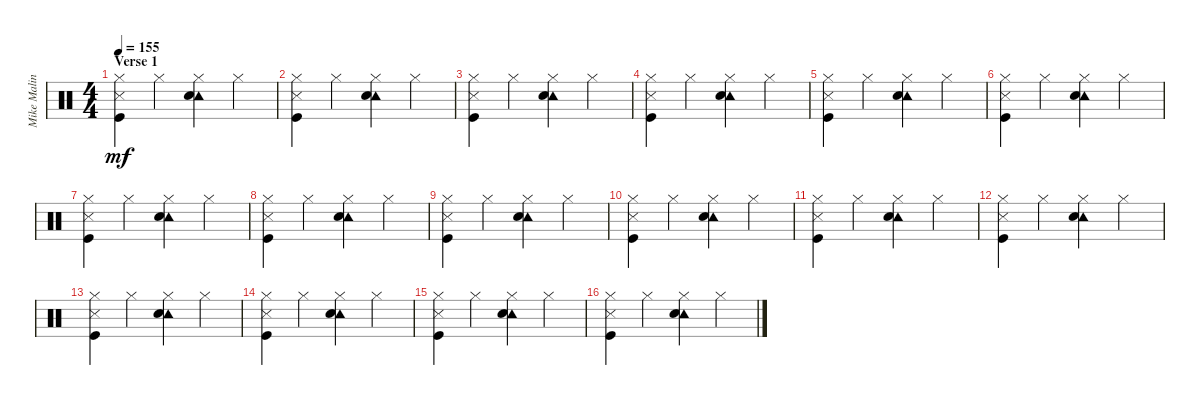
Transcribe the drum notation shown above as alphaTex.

\track ("Mike Malinin - Drums" "Mike Malin") {instrument percussion}
\staff {score}
\articulation defaults
\ts (4 4)
\section ("" "Verse 1")
\tempo 155
\clef neutral
\ks c
("Hi-Hat (closed)" "Metronome (hit)" "Kick (hit)").4{dy mf} "Hi-Hat (closed)".4 ("Tambourine (hit)" "Hi-Hat (closed)" "Electric Snare (hit)").4 "Hi-Hat (closed)".4 |
("Hi-Hat (closed)" "Metronome (hit)" "Kick (hit)").4 "Hi-Hat (closed)".4 ("Tambourine (hit)" "Hi-Hat (closed)" "Electric Snare (hit)").4 "Hi-Hat (closed)".4 |
("Hi-Hat (closed)" "Metronome (hit)" "Kick (hit)").4 "Hi-Hat (closed)".4 ("Tambourine (hit)" "Hi-Hat (closed)" "Electric Snare (hit)").4 "Hi-Hat (closed)".4 |
("Hi-Hat (closed)" "Metronome (hit)" "Kick (hit)").4 "Hi-Hat (closed)".4 ("Tambourine (hit)" "Hi-Hat (closed)" "Electric Snare (hit)").4 "Hi-Hat (closed)".4 |
("Hi-Hat (closed)" "Metronome (hit)" "Kick (hit)").4 "Hi-Hat (closed)".4 ("Tambourine (hit)" "Hi-Hat (closed)" "Electric Snare (hit)").4 "Hi-Hat (closed)".4 |
("Hi-Hat (closed)" "Metronome (hit)" "Kick (hit)").4 "Hi-Hat (closed)".4 ("Tambourine (hit)" "Hi-Hat (closed)" "Electric Snare (hit)").4 "Hi-Hat (closed)".4 |
("Hi-Hat (closed)" "Metronome (hit)" "Kick (hit)").4 "Hi-Hat (closed)".4 ("Tambourine (hit)" "Hi-Hat (closed)" "Electric Snare (hit)").4 "Hi-Hat (closed)".4 |
("Hi-Hat (closed)" "Metronome (hit)" "Kick (hit)").4 "Hi-Hat (closed)".4 ("Tambourine (hit)" "Hi-Hat (closed)" "Electric Snare (hit)").4 "Hi-Hat (closed)".4 |
("Hi-Hat (closed)" "Metronome (hit)" "Kick (hit)").4 "Hi-Hat (closed)".4 ("Tambourine (hit)" "Hi-Hat (closed)" "Electric Snare (hit)").4 "Hi-Hat (closed)".4 |
("Hi-Hat (closed)" "Metronome (hit)" "Kick (hit)").4 "Hi-Hat (closed)".4 ("Tambourine (hit)" "Hi-Hat (closed)" "Electric Snare (hit)").4 "Hi-Hat (closed)".4 |
("Hi-Hat (closed)" "Metronome (hit)" "Kick (hit)").4 "Hi-Hat (closed)".4 ("Tambourine (hit)" "Hi-Hat (closed)" "Electric Snare (hit)").4 "Hi-Hat (closed)".4 |
("Hi-Hat (closed)" "Metronome (hit)" "Kick (hit)").4 "Hi-Hat (closed)".4 ("Tambourine (hit)" "Hi-Hat (closed)" "Electric Snare (hit)").4 "Hi-Hat (closed)".4 |
("Hi-Hat (closed)" "Metronome (hit)" "Kick (hit)").4 "Hi-Hat (closed)".4 ("Tambourine (hit)" "Hi-Hat (closed)" "Electric Snare (hit)").4 "Hi-Hat (closed)".4 |
("Hi-Hat (closed)" "Metronome (hit)" "Kick (hit)").4 "Hi-Hat (closed)".4 ("Tambourine (hit)" "Hi-Hat (closed)" "Electric Snare (hit)").4 "Hi-Hat (closed)".4 |
("Hi-Hat (closed)" "Metronome (hit)" "Kick (hit)").4 "Hi-Hat (closed)".4 ("Tambourine (hit)" "Hi-Hat (closed)" "Electric Snare (hit)").4 "Hi-Hat (closed)".4 |
("Hi-Hat (closed)" "Metronome (hit)" "Kick (hit)").4 "Hi-Hat (closed)".4 ("Tambourine (hit)" "Hi-Hat (closed)" "Electric Snare (hit)").4 "Hi-Hat (closed)".4
